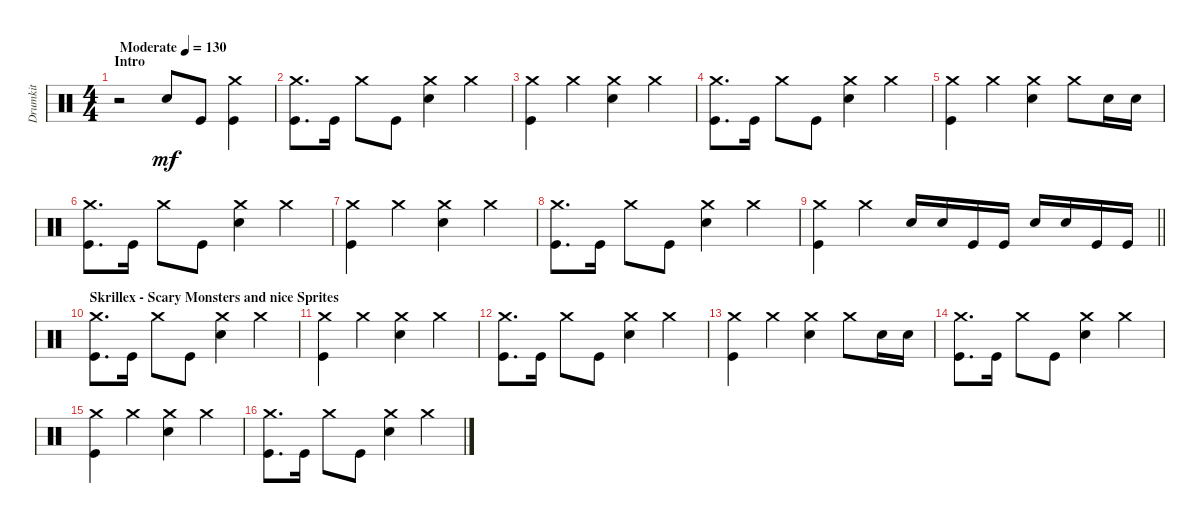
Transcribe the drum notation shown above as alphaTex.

\track ("Drumkit" "Drumkit") {instrument percussion}
\staff {score}
\articulation defaults
\ts (4 4)
\section ("" "Intro")
\tempo (130 "Moderate")
\clef neutral
\ks c
r.2{dy mf} "Snare (hit) 2".8 "Kick (hit)".8 ("Crash medium (hit)" "Kick (hit)").4 |
("Kick (hit)" "Crash medium (hit)").8{d} "Kick (hit)".16 "Crash medium (hit)".8 "Kick (hit)".8 ("Crash medium (hit)" "Snare (hit) 2").4 "Crash medium (hit)".4 |
("Kick (hit)" "Crash medium (hit)").4 "Crash medium (hit)".4 ("Crash medium (hit)" "Snare (hit) 2").4 "Crash medium (hit)".4 |
("Kick (hit)" "Crash medium (hit)").8{d} "Kick (hit)".16 "Crash medium (hit)".8 "Kick (hit)".8 ("Crash medium (hit)" "Snare (hit) 2").4 "Crash medium (hit)".4 |
("Kick (hit)" "Crash medium (hit)").4 "Crash medium (hit)".4 ("Crash medium (hit)" "Snare (hit) 2").4 "Crash medium (hit)".8 "Snare (hit) 2".16 "Snare (hit) 2".16 |
("Kick (hit)" "Crash medium (hit)").8{d} "Kick (hit)".16 "Crash medium (hit)".8 "Kick (hit)".8 ("Crash medium (hit)" "Snare (hit) 2").4 "Crash medium (hit)".4 |
("Kick (hit)" "Crash medium (hit)").4 "Crash medium (hit)".4 ("Crash medium (hit)" "Snare (hit) 2").4 "Crash medium (hit)".4 |
("Kick (hit)" "Crash medium (hit)").8{d} "Kick (hit)".16 "Crash medium (hit)".8 "Kick (hit)".8 ("Crash medium (hit)" "Snare (hit) 2").4 "Crash medium (hit)".4 |
\barLineRight lightlight
("Kick (hit)" "Crash medium (hit)").4 "Crash medium (hit)".4 "Snare (hit) 2".16 "Snare (hit) 2".16 "Kick (hit)".16 "Kick (hit)".16 "Snare (hit) 2".16 "Snare (hit) 2".16 "Kick (hit)".16 "Kick (hit)".16 |
\section ("" "Skrillex - Scary Monsters and nice Sprites")
("Kick (hit)" "Crash medium (hit)").8{d} "Kick (hit)".16 "Crash medium (hit)".8 "Kick (hit)".8 ("Crash medium (hit)" "Snare (hit) 2").4 "Crash medium (hit)".4 |
("Kick (hit)" "Crash medium (hit)").4 "Crash medium (hit)".4 ("Crash medium (hit)" "Snare (hit) 2").4 "Crash medium (hit)".4 |
("Kick (hit)" "Crash medium (hit)").8{d} "Kick (hit)".16 "Crash medium (hit)".8 "Kick (hit)".8 ("Crash medium (hit)" "Snare (hit) 2").4 "Crash medium (hit)".4 |
("Kick (hit)" "Crash medium (hit)").4 "Crash medium (hit)".4 ("Crash medium (hit)" "Snare (hit) 2").4 "Crash medium (hit)".8 "Snare (hit) 2".16 "Snare (hit) 2".16 |
("Kick (hit)" "Crash medium (hit)").8{d} "Kick (hit)".16 "Crash medium (hit)".8 "Kick (hit)".8 ("Crash medium (hit)" "Snare (hit) 2").4 "Crash medium (hit)".4 |
("Kick (hit)" "Crash medium (hit)").4 "Crash medium (hit)".4 ("Crash medium (hit)" "Snare (hit) 2").4 "Crash medium (hit)".4 |
("Kick (hit)" "Crash medium (hit)").8{d} "Kick (hit)".16 "Crash medium (hit)".8 "Kick (hit)".8 ("Crash medium (hit)" "Snare (hit) 2").4 "Crash medium (hit)".4
